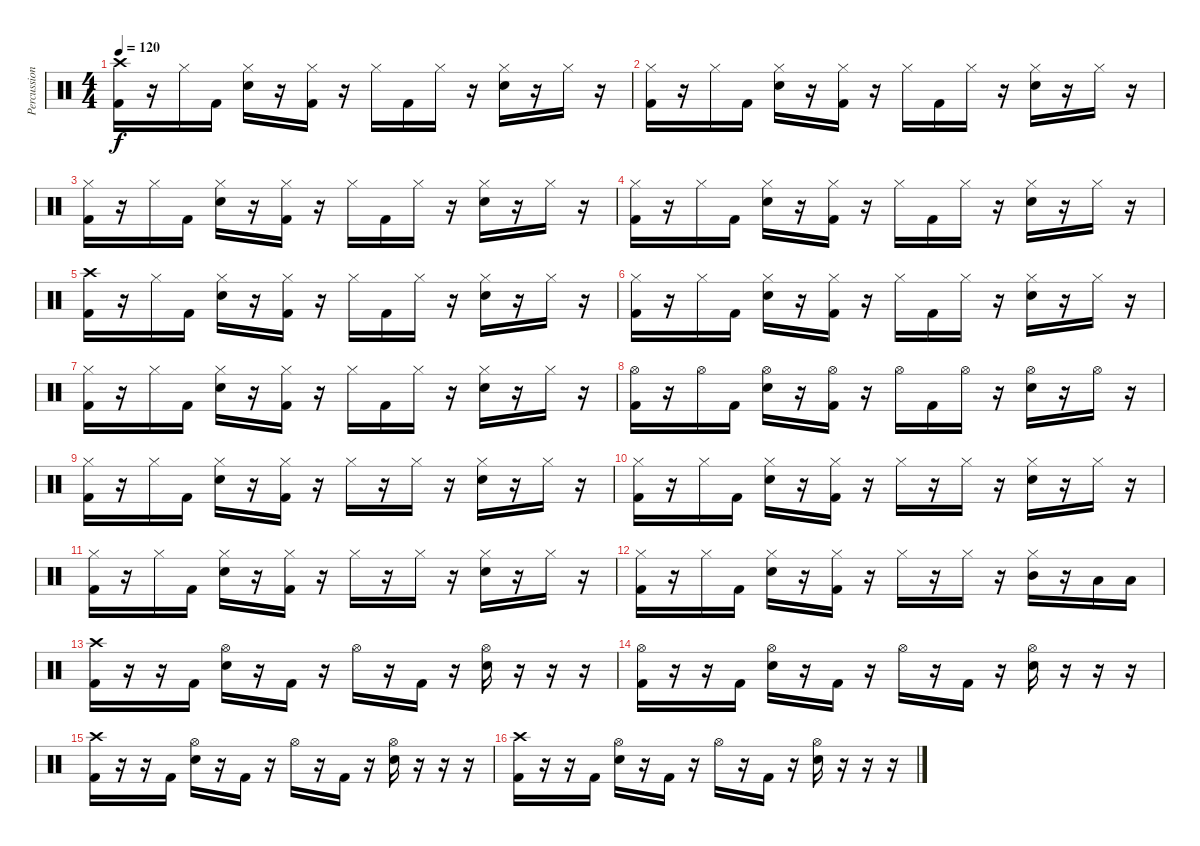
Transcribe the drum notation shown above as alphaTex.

\track ("Percussion" "Percussion") {instrument percussion}
\staff {score}
\articulation defaults
\ts (4 4)
\tempo 120
\clef neutral
\ks c
("Crash high (hit)" "Kick (hit) 2").16{dy f} r.16 "Hi-Hat (closed)".16 "Kick (hit) 2".16 ("Hi-Hat (closed)" "Snare (hit) 2").16 r.16 ("Hi-Hat (closed)" "Kick (hit) 2").16 r.16 "Hi-Hat (closed)".16 "Kick (hit) 2".16 "Hi-Hat (closed)".16 r.16 ("Hi-Hat (closed)" "Snare (hit) 2").16 r.16 "Hi-Hat (closed)".16 r.16 |
("Hi-Hat (closed)" "Kick (hit) 2").16 r.16 "Hi-Hat (closed)".16 "Kick (hit) 2".16 ("Hi-Hat (closed)" "Snare (hit) 2").16 r.16 ("Hi-Hat (closed)" "Kick (hit) 2").16 r.16 "Hi-Hat (closed)".16 "Kick (hit) 2".16 "Hi-Hat (closed)".16 r.16 ("Hi-Hat (closed)" "Snare (hit) 2").16 r.16 "Hi-Hat (closed)".16 r.16 |
("Hi-Hat (closed)" "Kick (hit) 2").16 r.16 "Hi-Hat (closed)".16 "Kick (hit) 2".16 ("Hi-Hat (closed)" "Snare (hit) 2").16 r.16 ("Hi-Hat (closed)" "Kick (hit) 2").16 r.16 "Hi-Hat (closed)".16 "Kick (hit) 2".16 "Hi-Hat (closed)".16 r.16 ("Hi-Hat (closed)" "Snare (hit) 2").16 r.16 "Hi-Hat (closed)".16 r.16 |
("Hi-Hat (closed)" "Kick (hit) 2").16 r.16 "Hi-Hat (closed)".16 "Kick (hit) 2".16 ("Hi-Hat (closed)" "Snare (hit) 2").16 r.16 ("Hi-Hat (closed)" "Kick (hit) 2").16 r.16 "Hi-Hat (closed)".16 "Kick (hit) 2".16 "Hi-Hat (closed)".16 r.16 ("Hi-Hat (closed)" "Snare (hit) 2").16 r.16 "Hi-Hat (closed)".16 r.16 |
("Crash high (hit)" "Kick (hit) 2").16 r.16 "Hi-Hat (closed)".16 "Kick (hit) 2".16 ("Hi-Hat (closed)" "Snare (hit) 2").16 r.16 ("Hi-Hat (closed)" "Kick (hit) 2").16 r.16 "Hi-Hat (closed)".16 "Kick (hit) 2".16 "Hi-Hat (closed)".16 r.16 ("Hi-Hat (closed)" "Snare (hit) 2").16 r.16 "Hi-Hat (closed)".16 r.16 |
("Hi-Hat (closed)" "Kick (hit) 2").16 r.16 "Hi-Hat (closed)".16 "Kick (hit) 2".16 ("Hi-Hat (closed)" "Snare (hit) 2").16 r.16 ("Hi-Hat (closed)" "Kick (hit) 2").16 r.16 "Hi-Hat (closed)".16 "Kick (hit) 2".16 "Hi-Hat (closed)".16 r.16 ("Hi-Hat (closed)" "Snare (hit) 2").16 r.16 "Hi-Hat (closed)".16 r.16 |
("Hi-Hat (closed)" "Kick (hit) 2").16 r.16 "Hi-Hat (closed)".16 "Kick (hit) 2".16 ("Hi-Hat (closed)" "Snare (hit) 2").16 r.16 ("Hi-Hat (closed)" "Kick (hit) 2").16 r.16 "Hi-Hat (closed)".16 "Kick (hit) 2".16 "Hi-Hat (closed)".16 r.16 ("Hi-Hat (closed)" "Snare (hit) 2").16 r.16 "Hi-Hat (closed)".16 r.16 |
("Hi-Hat (open)" "Kick (hit) 2").16 r.16 "Hi-Hat (open)".16 "Kick (hit) 2".16 ("Hi-Hat (open)" "Snare (hit) 2").16 r.16 ("Hi-Hat (open)" "Kick (hit) 2").16 r.16 "Hi-Hat (open)".16 "Kick (hit) 2".16 "Hi-Hat (open)".16 r.16 ("Hi-Hat (open)" "Snare (hit) 2").16 r.16 "Hi-Hat (open)".16 r.16 |
("Hi-Hat (closed)" "Kick (hit) 2").16 r.16 "Hi-Hat (closed)".16 "Kick (hit) 2".16 ("Hi-Hat (closed)" "Snare (hit) 2").16 r.16 ("Hi-Hat (closed)" "Kick (hit) 2").16 r.16 "Hi-Hat (closed)".16 r.16 "Hi-Hat (closed)".16 r.16 ("Hi-Hat (closed)" "Snare (hit) 2").16 r.16 "Hi-Hat (closed)".16 r.16 |
("Hi-Hat (closed)" "Kick (hit) 2").16 r.16 "Hi-Hat (closed)".16 "Kick (hit) 2".16 ("Hi-Hat (closed)" "Snare (hit) 2").16 r.16 ("Hi-Hat (closed)" "Kick (hit) 2").16 r.16 "Hi-Hat (closed)".16 r.16 "Hi-Hat (closed)".16 r.16 ("Hi-Hat (closed)" "Snare (hit) 2").16 r.16 "Hi-Hat (closed)".16 r.16 |
("Hi-Hat (closed)" "Kick (hit) 2").16 r.16 "Hi-Hat (closed)".16 "Kick (hit) 2".16 ("Hi-Hat (closed)" "Snare (hit) 2").16 r.16 ("Hi-Hat (closed)" "Kick (hit) 2").16 r.16 "Hi-Hat (closed)".16 r.16 "Hi-Hat (closed)".16 r.16 ("Hi-Hat (closed)" "Snare (hit) 2").16 r.16 "Hi-Hat (closed)".16 r.16 |
("Hi-Hat (closed)" "Kick (hit) 2").16 r.16 "Hi-Hat (closed)".16 "Kick (hit) 2".16 ("Hi-Hat (closed)" "Snare (hit) 2").16 r.16 ("Hi-Hat (closed)" "Kick (hit) 2").16 r.16 "Hi-Hat (closed)".16 r.16 "Hi-Hat (closed)".16 r.16 ("Hi-Hat (closed)" "Mid Tom (hit)").16 r.16 "Low Floor Tom (hit)".16 "Low Floor Tom (hit)".16 |
("Crash high (hit)" "Kick (hit) 2").16 r.16 r.16 "Kick (hit) 2".16 ("Hi-Hat (open)" "Snare (hit) 2").16 r.16 "Kick (hit) 2".16 r.16 "Hi-Hat (open)".16 r.16 "Kick (hit) 2".16 r.16 ("Hi-Hat (open)" "Snare (hit) 2").16 r.16 r.16 r.16 |
("Hi-Hat (open)" "Kick (hit) 2").16 r.16 r.16 "Kick (hit) 2".16 ("Hi-Hat (open)" "Snare (hit) 2").16 r.16 "Kick (hit) 2".16 r.16 "Hi-Hat (open)".16 r.16 "Kick (hit) 2".16 r.16 ("Hi-Hat (open)" "Snare (hit) 2").16 r.16 r.16 r.16 |
("Crash high (hit)" "Kick (hit) 2").16 r.16 r.16 "Kick (hit) 2".16 ("Hi-Hat (open)" "Snare (hit) 2").16 r.16 "Kick (hit) 2".16 r.16 "Hi-Hat (open)".16 r.16 "Kick (hit) 2".16 r.16 ("Hi-Hat (open)" "Snare (hit) 2").16 r.16 r.16 r.16 |
("Crash high (hit)" "Kick (hit) 2").16 r.16 r.16 "Kick (hit) 2".16 ("Hi-Hat (open)" "Snare (hit) 2").16 r.16 "Kick (hit) 2".16 r.16 "Hi-Hat (open)".16 r.16 "Kick (hit) 2".16 r.16 ("Hi-Hat (open)" "Snare (hit) 2").16 r.16 r.16 r.16
